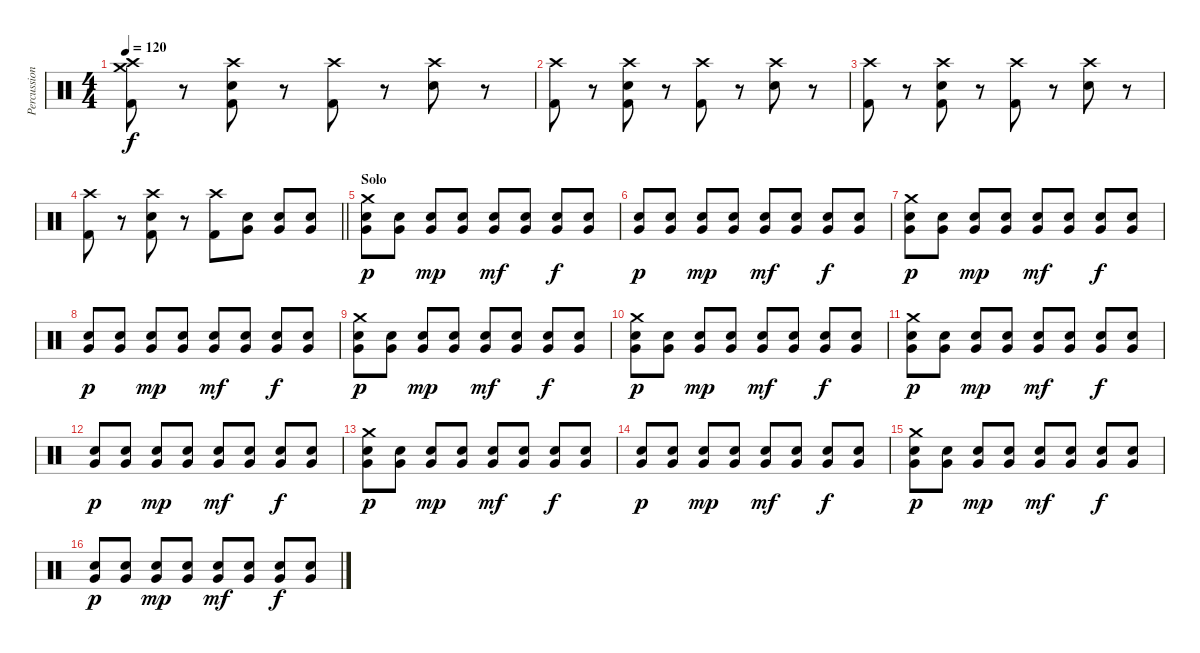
\track ("Percussion" "Percussion") {instrument percussion}
\staff {score}
\articulation defaults
\ts (4 4)
\tempo 120
\clef neutral
\ks c
("Crash medium (hit)" "Crash high (hit)" "Kick (hit) 2").8{dy f} r.8 ("Crash high (hit)" "Snare (hit) 2" "Kick (hit) 2").8 r.8 ("Crash high (hit)" "Kick (hit) 2").8 r.8 ("Crash high (hit)" "Snare (hit) 2").8 r.8 |
("Crash high (hit)" "Kick (hit) 2").8 r.8 ("Crash high (hit)" "Snare (hit) 2" "Kick (hit) 2").8 r.8 ("Crash high (hit)" "Kick (hit) 2").8 r.8 ("Crash high (hit)" "Snare (hit) 2").8 r.8 |
("Crash high (hit)" "Kick (hit) 2").8 r.8 ("Crash high (hit)" "Snare (hit) 2" "Kick (hit) 2").8 r.8 ("Crash high (hit)" "Kick (hit) 2").8 r.8 ("Crash high (hit)" "Snare (hit) 2").8 r.8 |
\barLineRight lightlight
("Crash high (hit)" "Kick (hit) 2").8 r.8 ("Crash high (hit)" "Snare (hit) 2" "Kick (hit) 2").8 r.8 ("Crash high (hit)" "Kick (hit) 2").8 ("Very Low Tom (hit)" "Snare (hit) 2").8 ("Very Low Tom (hit)" "Snare (hit) 2").8 ("Very Low Tom (hit)" "Snare (hit) 2").8 |
\section ("" "Solo")
("Crash medium (hit)" "Very Low Tom (hit)" "Snare (hit) 2").8{dy p} ("Very Low Tom (hit)" "Snare (hit) 2").8 ("Very Low Tom (hit)" "Snare (hit) 2").8{dy mp} ("Very Low Tom (hit)" "Snare (hit) 2").8 ("Very Low Tom (hit)" "Snare (hit) 2").8{dy mf} ("Very Low Tom (hit)" "Snare (hit) 2").8 ("Very Low Tom (hit)" "Snare (hit) 2").8{dy f} ("Very Low Tom (hit)" "Snare (hit) 2").8 |
("Very Low Tom (hit)" "Snare (hit) 2").8{dy p} ("Very Low Tom (hit)" "Snare (hit) 2").8 ("Very Low Tom (hit)" "Snare (hit) 2").8{dy mp} ("Very Low Tom (hit)" "Snare (hit) 2").8 ("Very Low Tom (hit)" "Snare (hit) 2").8{dy mf} ("Very Low Tom (hit)" "Snare (hit) 2").8 ("Very Low Tom (hit)" "Snare (hit) 2").8{dy f} ("Very Low Tom (hit)" "Snare (hit) 2").8 |
("Crash medium (hit)" "Very Low Tom (hit)" "Snare (hit) 2").8{dy p} ("Very Low Tom (hit)" "Snare (hit) 2").8 ("Very Low Tom (hit)" "Snare (hit) 2").8{dy mp} ("Very Low Tom (hit)" "Snare (hit) 2").8 ("Very Low Tom (hit)" "Snare (hit) 2").8{dy mf} ("Very Low Tom (hit)" "Snare (hit) 2").8 ("Very Low Tom (hit)" "Snare (hit) 2").8{dy f} ("Very Low Tom (hit)" "Snare (hit) 2").8 |
("Very Low Tom (hit)" "Snare (hit) 2").8{dy p} ("Very Low Tom (hit)" "Snare (hit) 2").8 ("Very Low Tom (hit)" "Snare (hit) 2").8{dy mp} ("Very Low Tom (hit)" "Snare (hit) 2").8 ("Very Low Tom (hit)" "Snare (hit) 2").8{dy mf} ("Very Low Tom (hit)" "Snare (hit) 2").8 ("Very Low Tom (hit)" "Snare (hit) 2").8{dy f} ("Very Low Tom (hit)" "Snare (hit) 2").8 |
("Crash medium (hit)" "Very Low Tom (hit)" "Snare (hit) 2").8{dy p} ("Very Low Tom (hit)" "Snare (hit) 2").8 ("Very Low Tom (hit)" "Snare (hit) 2").8{dy mp} ("Very Low Tom (hit)" "Snare (hit) 2").8 ("Very Low Tom (hit)" "Snare (hit) 2").8{dy mf} ("Very Low Tom (hit)" "Snare (hit) 2").8 ("Very Low Tom (hit)" "Snare (hit) 2").8{dy f} ("Very Low Tom (hit)" "Snare (hit) 2").8 |
("Crash medium (hit)" "Very Low Tom (hit)" "Snare (hit) 2").8{dy p} ("Very Low Tom (hit)" "Snare (hit) 2").8 ("Very Low Tom (hit)" "Snare (hit) 2").8{dy mp} ("Very Low Tom (hit)" "Snare (hit) 2").8 ("Very Low Tom (hit)" "Snare (hit) 2").8{dy mf} ("Very Low Tom (hit)" "Snare (hit) 2").8 ("Very Low Tom (hit)" "Snare (hit) 2").8{dy f} ("Very Low Tom (hit)" "Snare (hit) 2").8 |
("Crash medium (hit)" "Very Low Tom (hit)" "Snare (hit) 2").8{dy p} ("Very Low Tom (hit)" "Snare (hit) 2").8 ("Very Low Tom (hit)" "Snare (hit) 2").8{dy mp} ("Very Low Tom (hit)" "Snare (hit) 2").8 ("Very Low Tom (hit)" "Snare (hit) 2").8{dy mf} ("Very Low Tom (hit)" "Snare (hit) 2").8 ("Very Low Tom (hit)" "Snare (hit) 2").8{dy f} ("Very Low Tom (hit)" "Snare (hit) 2").8 |
("Very Low Tom (hit)" "Snare (hit) 2").8{dy p} ("Very Low Tom (hit)" "Snare (hit) 2").8 ("Very Low Tom (hit)" "Snare (hit) 2").8{dy mp} ("Very Low Tom (hit)" "Snare (hit) 2").8 ("Very Low Tom (hit)" "Snare (hit) 2").8{dy mf} ("Very Low Tom (hit)" "Snare (hit) 2").8 ("Very Low Tom (hit)" "Snare (hit) 2").8{dy f} ("Very Low Tom (hit)" "Snare (hit) 2").8 |
("Crash medium (hit)" "Very Low Tom (hit)" "Snare (hit) 2").8{dy p} ("Very Low Tom (hit)" "Snare (hit) 2").8 ("Very Low Tom (hit)" "Snare (hit) 2").8{dy mp} ("Very Low Tom (hit)" "Snare (hit) 2").8 ("Very Low Tom (hit)" "Snare (hit) 2").8{dy mf} ("Very Low Tom (hit)" "Snare (hit) 2").8 ("Very Low Tom (hit)" "Snare (hit) 2").8{dy f} ("Very Low Tom (hit)" "Snare (hit) 2").8 |
("Very Low Tom (hit)" "Snare (hit) 2").8{dy p} ("Very Low Tom (hit)" "Snare (hit) 2").8 ("Very Low Tom (hit)" "Snare (hit) 2").8{dy mp} ("Very Low Tom (hit)" "Snare (hit) 2").8 ("Very Low Tom (hit)" "Snare (hit) 2").8{dy mf} ("Very Low Tom (hit)" "Snare (hit) 2").8 ("Very Low Tom (hit)" "Snare (hit) 2").8{dy f} ("Very Low Tom (hit)" "Snare (hit) 2").8 |
("Crash medium (hit)" "Very Low Tom (hit)" "Snare (hit) 2").8{dy p} ("Very Low Tom (hit)" "Snare (hit) 2").8 ("Very Low Tom (hit)" "Snare (hit) 2").8{dy mp} ("Very Low Tom (hit)" "Snare (hit) 2").8 ("Very Low Tom (hit)" "Snare (hit) 2").8{dy mf} ("Very Low Tom (hit)" "Snare (hit) 2").8 ("Very Low Tom (hit)" "Snare (hit) 2").8{dy f} ("Very Low Tom (hit)" "Snare (hit) 2").8 |
("Very Low Tom (hit)" "Snare (hit) 2").8{dy p} ("Very Low Tom (hit)" "Snare (hit) 2").8 ("Very Low Tom (hit)" "Snare (hit) 2").8{dy mp} ("Very Low Tom (hit)" "Snare (hit) 2").8 ("Very Low Tom (hit)" "Snare (hit) 2").8{dy mf} ("Very Low Tom (hit)" "Snare (hit) 2").8 ("Very Low Tom (hit)" "Snare (hit) 2").8{dy f} ("Very Low Tom (hit)" "Snare (hit) 2").8
